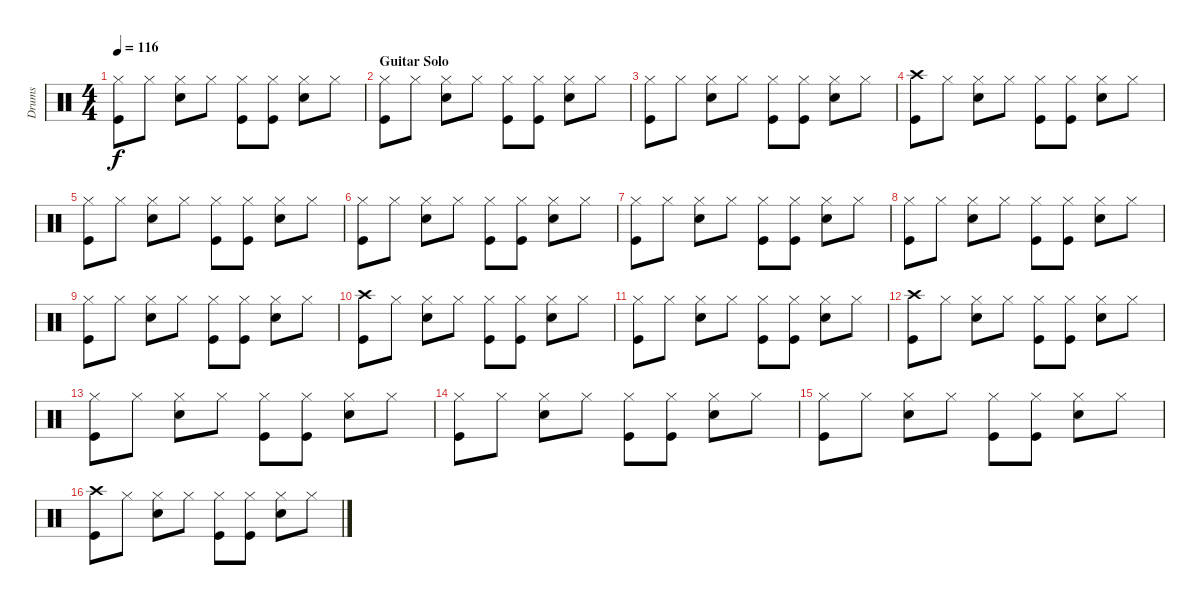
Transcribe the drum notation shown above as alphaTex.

\track ("Drums" "Drums") {instrument percussion}
\staff {score}
\articulation defaults
\ts (4 4)
\tempo 116
\clef neutral
\ks c
("Hi-Hat (closed)" "Kick (hit)").8{dy f} "Hi-Hat (closed)".8 ("Hi-Hat (closed)" "Snare (hit) 2").8 "Hi-Hat (closed)".8 ("Hi-Hat (closed)" "Kick (hit)").8 ("Hi-Hat (closed)" "Kick (hit)").8 ("Hi-Hat (closed)" "Snare (hit) 2").8 "Hi-Hat (closed)".8 |
\section ("" "Guitar Solo")
("Hi-Hat (closed)" "Kick (hit)").8 "Hi-Hat (closed)".8 ("Hi-Hat (closed)" "Snare (hit) 2").8 "Hi-Hat (closed)".8 ("Hi-Hat (closed)" "Kick (hit)").8 ("Hi-Hat (closed)" "Kick (hit)").8 ("Hi-Hat (closed)" "Snare (hit) 2").8 "Hi-Hat (closed)".8 |
("Hi-Hat (closed)" "Kick (hit)").8 "Hi-Hat (closed)".8 ("Hi-Hat (closed)" "Snare (hit) 2").8 "Hi-Hat (closed)".8 ("Hi-Hat (closed)" "Kick (hit)").8 ("Hi-Hat (closed)" "Kick (hit)").8 ("Hi-Hat (closed)" "Snare (hit) 2").8 "Hi-Hat (closed)".8 |
("Crash high (hit)" "Kick (hit)").8 "Hi-Hat (closed)".8 ("Hi-Hat (closed)" "Snare (hit) 2").8 "Hi-Hat (closed)".8 ("Hi-Hat (closed)" "Kick (hit)").8 ("Hi-Hat (closed)" "Kick (hit)").8 ("Hi-Hat (closed)" "Snare (hit) 2").8 "Hi-Hat (closed)".8 |
("Hi-Hat (closed)" "Kick (hit)").8 "Hi-Hat (closed)".8 ("Hi-Hat (closed)" "Snare (hit) 2").8 "Hi-Hat (closed)".8 ("Hi-Hat (closed)" "Kick (hit)").8 ("Hi-Hat (closed)" "Kick (hit)").8 ("Hi-Hat (closed)" "Snare (hit) 2").8 "Hi-Hat (closed)".8 |
("Hi-Hat (closed)" "Kick (hit)").8 "Hi-Hat (closed)".8 ("Hi-Hat (closed)" "Snare (hit) 2").8 "Hi-Hat (closed)".8 ("Hi-Hat (closed)" "Kick (hit)").8 ("Hi-Hat (closed)" "Kick (hit)").8 ("Hi-Hat (closed)" "Snare (hit) 2").8 "Hi-Hat (closed)".8 |
("Hi-Hat (closed)" "Kick (hit)").8 "Hi-Hat (closed)".8 ("Hi-Hat (closed)" "Snare (hit) 2").8 "Hi-Hat (closed)".8 ("Hi-Hat (closed)" "Kick (hit)").8 ("Hi-Hat (closed)" "Kick (hit)").8 ("Hi-Hat (closed)" "Snare (hit) 2").8 "Hi-Hat (closed)".8 |
("Hi-Hat (closed)" "Kick (hit)").8 "Hi-Hat (closed)".8 ("Hi-Hat (closed)" "Snare (hit) 2").8 "Hi-Hat (closed)".8 ("Hi-Hat (closed)" "Kick (hit)").8 ("Hi-Hat (closed)" "Kick (hit)").8 ("Hi-Hat (closed)" "Snare (hit) 2").8 "Hi-Hat (closed)".8 |
("Hi-Hat (closed)" "Kick (hit)").8 "Hi-Hat (closed)".8 ("Hi-Hat (closed)" "Snare (hit) 2").8 "Hi-Hat (closed)".8 ("Hi-Hat (closed)" "Kick (hit)").8 ("Hi-Hat (closed)" "Kick (hit)").8 ("Hi-Hat (closed)" "Snare (hit) 2").8 "Hi-Hat (closed)".8 |
("Crash high (hit)" "Kick (hit)").8 "Hi-Hat (closed)".8 ("Hi-Hat (closed)" "Snare (hit) 2").8 "Hi-Hat (closed)".8 ("Hi-Hat (closed)" "Kick (hit)").8 ("Hi-Hat (closed)" "Kick (hit)").8 ("Hi-Hat (closed)" "Snare (hit) 2").8 "Hi-Hat (closed)".8 |
("Hi-Hat (closed)" "Kick (hit)").8 "Hi-Hat (closed)".8 ("Hi-Hat (closed)" "Snare (hit) 2").8 "Hi-Hat (closed)".8 ("Hi-Hat (closed)" "Kick (hit)").8 ("Hi-Hat (closed)" "Kick (hit)").8 ("Hi-Hat (closed)" "Snare (hit) 2").8 "Hi-Hat (closed)".8 |
("Crash high (hit)" "Kick (hit)").8 "Hi-Hat (closed)".8 ("Hi-Hat (closed)" "Snare (hit) 2").8 "Hi-Hat (closed)".8 ("Hi-Hat (closed)" "Kick (hit)").8 ("Hi-Hat (closed)" "Kick (hit)").8 ("Hi-Hat (closed)" "Snare (hit) 2").8 "Hi-Hat (closed)".8 |
("Hi-Hat (closed)" "Kick (hit)").8 "Hi-Hat (closed)".8 ("Hi-Hat (closed)" "Snare (hit) 2").8 "Hi-Hat (closed)".8 ("Hi-Hat (closed)" "Kick (hit)").8 ("Hi-Hat (closed)" "Kick (hit)").8 ("Hi-Hat (closed)" "Snare (hit) 2").8 "Hi-Hat (closed)".8 |
("Hi-Hat (closed)" "Kick (hit)").8 "Hi-Hat (closed)".8 ("Hi-Hat (closed)" "Snare (hit) 2").8 "Hi-Hat (closed)".8 ("Hi-Hat (closed)" "Kick (hit)").8 ("Hi-Hat (closed)" "Kick (hit)").8 ("Hi-Hat (closed)" "Snare (hit) 2").8 "Hi-Hat (closed)".8 |
("Hi-Hat (closed)" "Kick (hit)").8 "Hi-Hat (closed)".8 ("Hi-Hat (closed)" "Snare (hit) 2").8 "Hi-Hat (closed)".8 ("Hi-Hat (closed)" "Kick (hit)").8 ("Hi-Hat (closed)" "Kick (hit)").8 ("Hi-Hat (closed)" "Snare (hit) 2").8 "Hi-Hat (closed)".8 |
("Crash high (hit)" "Kick (hit)").8 "Hi-Hat (closed)".8 ("Hi-Hat (closed)" "Snare (hit) 2").8 "Hi-Hat (closed)".8 ("Hi-Hat (closed)" "Kick (hit)").8 ("Hi-Hat (closed)" "Kick (hit)").8 ("Hi-Hat (closed)" "Snare (hit) 2").8 "Hi-Hat (closed)".8
